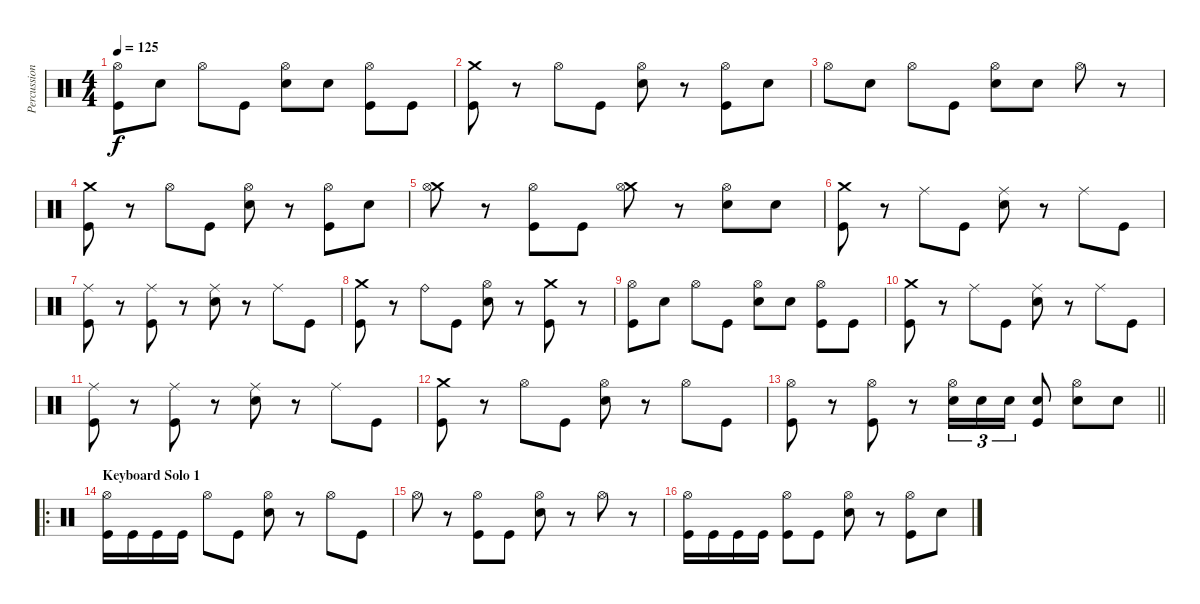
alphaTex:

\track ("Percussion" "Percussion") {instrument percussion}
\staff {score}
\articulation defaults
\ts (4 4)
\tempo 125
\clef neutral
\ks c
("Hi-Hat (open)" "Kick (hit)").8{dy f} "Snare (hit) 2".8 "Hi-Hat (open)".8 "Kick (hit)".8 ("Hi-Hat (open)" "Snare (hit) 2").8 "Snare (hit) 2".8 ("Hi-Hat (open)" "Kick (hit)").8 "Kick (hit)".8 |
("Crash medium (hit)" "Kick (hit)").8 r.8 "Hi-Hat (open)".8 "Kick (hit)".8 ("Hi-Hat (open)" "Snare (hit) 2").8 r.8 ("Hi-Hat (open)" "Kick (hit)").8 "Snare (hit) 2".8 |
"Hi-Hat (open)".8 "Snare (hit) 2".8 "Hi-Hat (open)".8 "Kick (hit)".8 ("Hi-Hat (open)" "Snare (hit) 2").8 "Snare (hit) 2".8 "Hi-Hat (open)".8 r.8 |
("Crash medium (hit)" "Kick (hit)").8 r.8 "Hi-Hat (open)".8 "Kick (hit)".8 ("Hi-Hat (open)" "Snare (hit) 2").8 r.8 ("Hi-Hat (open)" "Kick (hit)").8 "Snare (hit) 2".8 |
("Crash medium (hit)" "Hi-Hat (open)").8 r.8 ("Hi-Hat (open)" "Kick (hit)").8 "Kick (hit)".8 ("Crash medium (hit)" "Hi-Hat (open)").8 r.8 ("Hi-Hat (open)" "Snare (hit) 2").8 "Snare (hit) 2".8 |
("Crash medium (hit)" "Kick (hit)").8 r.8 "Ride (middle)".8 "Kick (hit)".8 ("Ride (middle)" "Snare (hit) 2").8 r.8 "Ride (middle)".8 "Kick (hit)".8 |
("Ride (middle)" "Kick (hit)").8 r.8 ("Ride (middle)" "Kick (hit)").8 r.8 ("Ride (middle)" "Snare (hit) 2").8 r.8 "Ride (middle)".8 "Kick (hit)".8 |
("Crash medium (hit)" "Kick (hit)").8 r.8 "Ride (bell)".8 "Kick (hit)".8 ("Hi-Hat (open)" "Snare (hit) 2").8 r.8 ("Crash medium (hit)" "Kick (hit)").8 r.8 |
("Hi-Hat (open)" "Kick (hit)").8 "Snare (hit) 2".8 "Hi-Hat (open)".8 "Kick (hit)".8 ("Hi-Hat (open)" "Snare (hit) 2").8 "Snare (hit) 2".8 ("Hi-Hat (open)" "Kick (hit)").8 "Kick (hit)".8 |
("Crash medium (hit)" "Kick (hit)").8 r.8 "Ride (middle)".8 "Kick (hit)".8 ("Ride (middle)" "Snare (hit) 2").8 r.8 "Ride (middle)".8 "Kick (hit)".8 |
("Ride (middle)" "Kick (hit)").8 r.8 ("Ride (middle)" "Kick (hit)").8 r.8 ("Ride (middle)" "Snare (hit) 2").8 r.8 "Ride (middle)".8 "Kick (hit)".8 |
("Crash medium (hit)" "Kick (hit)").8 r.8 "Hi-Hat (open)".8 "Kick (hit)".8 ("Hi-Hat (open)" "Snare (hit) 2").8 r.8 "Hi-Hat (open)".8 "Kick (hit)".8 |
\barLineRight lightlight
("Hi-Hat (open)" "Kick (hit)").8 r.8 ("Hi-Hat (open)" "Kick (hit)").8 r.8 ("Hi-Hat (open)" "Snare (hit) 2").16{tu (3 2)} "Snare (hit) 2".16{tu (3 2)} "Snare (hit) 2".16{tu (3 2)} ("Snare (hit) 2" "Kick (hit)").8 ("Hi-Hat (open)" "Snare (hit) 2").8 "Snare (hit) 2".8 |
\ro
\section ("" "Keyboard Solo 1")
("Hi-Hat (open)" "Kick (hit)").16 "Kick (hit)".16 "Kick (hit)".16 "Kick (hit)".16 "Hi-Hat (open)".8 "Kick (hit)".8 ("Hi-Hat (open)" "Snare (hit) 2").8 r.8 "Hi-Hat (open)".8 "Kick (hit)".8 |
"Hi-Hat (open)".8 r.8 ("Hi-Hat (open)" "Kick (hit)").8 "Kick (hit)".8 ("Hi-Hat (open)" "Snare (hit) 2").8 r.8 "Hi-Hat (open)".8 r.8 |
("Hi-Hat (open)" "Kick (hit)").16 "Kick (hit)".16 "Kick (hit)".16 "Kick (hit)".16 ("Hi-Hat (open)" "Kick (hit)").8 "Kick (hit)".8 ("Hi-Hat (open)" "Snare (hit) 2").8 r.8 ("Hi-Hat (open)" "Kick (hit)").8 "Snare (hit) 2".8
